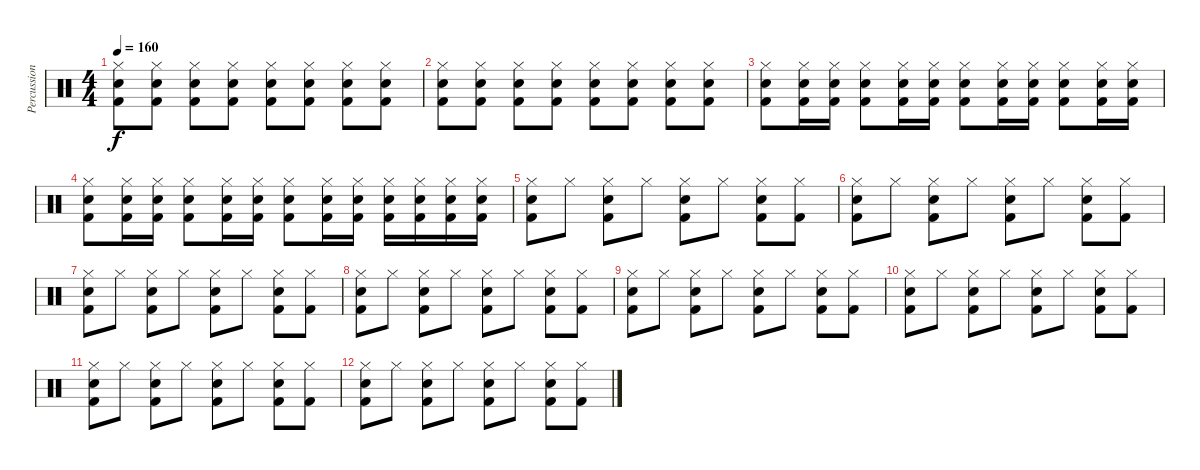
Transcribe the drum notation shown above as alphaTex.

\track ("Percussions" "Percussion") {instrument percussion}
\staff {score}
\articulation defaults
\ts (4 4)
\tempo 160
\clef neutral
\ks c
("Hi-Hat (closed)" "Electric Snare (hit)" "Kick (hit) 2").8{dy f} ("Hi-Hat (closed)" "Electric Snare (hit)" "Kick (hit) 2").8 ("Hi-Hat (closed)" "Electric Snare (hit)" "Kick (hit) 2").8 ("Hi-Hat (closed)" "Electric Snare (hit)" "Kick (hit) 2").8 ("Hi-Hat (closed)" "Electric Snare (hit)" "Kick (hit) 2").8 ("Hi-Hat (closed)" "Electric Snare (hit)" "Kick (hit) 2").8 ("Hi-Hat (closed)" "Electric Snare (hit)" "Kick (hit) 2").8 ("Hi-Hat (closed)" "Electric Snare (hit)" "Kick (hit) 2").8 |
("Hi-Hat (closed)" "Electric Snare (hit)" "Kick (hit) 2").8 ("Hi-Hat (closed)" "Electric Snare (hit)" "Kick (hit) 2").8 ("Hi-Hat (closed)" "Electric Snare (hit)" "Kick (hit) 2").8 ("Hi-Hat (closed)" "Electric Snare (hit)" "Kick (hit) 2").8 ("Hi-Hat (closed)" "Electric Snare (hit)" "Kick (hit) 2").8 ("Hi-Hat (closed)" "Electric Snare (hit)" "Kick (hit) 2").8 ("Hi-Hat (closed)" "Electric Snare (hit)" "Kick (hit) 2").8 ("Hi-Hat (closed)" "Electric Snare (hit)" "Kick (hit) 2").8 |
("Hi-Hat (closed)" "Electric Snare (hit)" "Kick (hit) 2").8 ("Hi-Hat (closed)" "Electric Snare (hit)" "Kick (hit) 2").16 ("Hi-Hat (closed)" "Electric Snare (hit)" "Kick (hit) 2").16 ("Hi-Hat (closed)" "Electric Snare (hit)" "Kick (hit) 2").8 ("Hi-Hat (closed)" "Electric Snare (hit)" "Kick (hit) 2").16 ("Hi-Hat (closed)" "Electric Snare (hit)" "Kick (hit) 2").16 ("Hi-Hat (closed)" "Electric Snare (hit)" "Kick (hit) 2").8 ("Hi-Hat (closed)" "Electric Snare (hit)" "Kick (hit) 2").16 ("Hi-Hat (closed)" "Electric Snare (hit)" "Kick (hit) 2").16 ("Hi-Hat (closed)" "Electric Snare (hit)" "Kick (hit) 2").8 ("Hi-Hat (closed)" "Electric Snare (hit)" "Kick (hit) 2").16 ("Hi-Hat (closed)" "Electric Snare (hit)" "Kick (hit) 2").16 |
("Hi-Hat (closed)" "Electric Snare (hit)" "Kick (hit) 2").8 ("Hi-Hat (closed)" "Electric Snare (hit)" "Kick (hit) 2").16 ("Hi-Hat (closed)" "Electric Snare (hit)" "Kick (hit) 2").16 ("Hi-Hat (closed)" "Electric Snare (hit)" "Kick (hit) 2").8 ("Hi-Hat (closed)" "Electric Snare (hit)" "Kick (hit) 2").16 ("Hi-Hat (closed)" "Electric Snare (hit)" "Kick (hit) 2").16 ("Hi-Hat (closed)" "Electric Snare (hit)" "Kick (hit) 2").8 ("Hi-Hat (closed)" "Electric Snare (hit)" "Kick (hit) 2").16 ("Hi-Hat (closed)" "Electric Snare (hit)" "Kick (hit) 2").16 ("Hi-Hat (closed)" "Electric Snare (hit)" "Kick (hit) 2").16 ("Hi-Hat (closed)" "Electric Snare (hit)" "Kick (hit) 2").16 ("Hi-Hat (closed)" "Electric Snare (hit)" "Kick (hit) 2").16 ("Hi-Hat (closed)" "Electric Snare (hit)" "Kick (hit) 2").16 |
("Hi-Hat (closed)" "Electric Snare (hit)" "Kick (hit) 2").8 "Hi-Hat (closed)".8 ("Hi-Hat (closed)" "Electric Snare (hit)" "Kick (hit) 2").8 "Hi-Hat (closed)".8 ("Hi-Hat (closed)" "Electric Snare (hit)" "Kick (hit) 2").8 "Hi-Hat (closed)".8 ("Hi-Hat (closed)" "Electric Snare (hit)" "Kick (hit) 2").8 ("Hi-Hat (closed)" "Kick (hit) 2").8 |
("Hi-Hat (closed)" "Electric Snare (hit)" "Kick (hit) 2").8 "Hi-Hat (closed)".8 ("Hi-Hat (closed)" "Electric Snare (hit)" "Kick (hit) 2").8 "Hi-Hat (closed)".8 ("Hi-Hat (closed)" "Electric Snare (hit)" "Kick (hit) 2").8 "Hi-Hat (closed)".8 ("Hi-Hat (closed)" "Electric Snare (hit)" "Kick (hit) 2").8 ("Hi-Hat (closed)" "Kick (hit) 2").8 |
("Hi-Hat (closed)" "Electric Snare (hit)" "Kick (hit) 2").8 "Hi-Hat (closed)".8 ("Hi-Hat (closed)" "Electric Snare (hit)" "Kick (hit) 2").8 "Hi-Hat (closed)".8 ("Hi-Hat (closed)" "Electric Snare (hit)" "Kick (hit) 2").8 "Hi-Hat (closed)".8 ("Hi-Hat (closed)" "Electric Snare (hit)" "Kick (hit) 2").8 ("Hi-Hat (closed)" "Kick (hit) 2").8 |
("Hi-Hat (closed)" "Electric Snare (hit)" "Kick (hit) 2").8 "Hi-Hat (closed)".8 ("Hi-Hat (closed)" "Electric Snare (hit)" "Kick (hit) 2").8 "Hi-Hat (closed)".8 ("Hi-Hat (closed)" "Electric Snare (hit)" "Kick (hit) 2").8 "Hi-Hat (closed)".8 ("Hi-Hat (closed)" "Electric Snare (hit)" "Kick (hit) 2").8 ("Hi-Hat (closed)" "Kick (hit) 2").8 |
("Hi-Hat (closed)" "Electric Snare (hit)" "Kick (hit) 2").8 "Hi-Hat (closed)".8 ("Hi-Hat (closed)" "Electric Snare (hit)" "Kick (hit) 2").8 "Hi-Hat (closed)".8 ("Hi-Hat (closed)" "Electric Snare (hit)" "Kick (hit) 2").8 "Hi-Hat (closed)".8 ("Hi-Hat (closed)" "Electric Snare (hit)" "Kick (hit) 2").8 ("Hi-Hat (closed)" "Kick (hit) 2").8 |
("Hi-Hat (closed)" "Electric Snare (hit)" "Kick (hit) 2").8 "Hi-Hat (closed)".8 ("Hi-Hat (closed)" "Electric Snare (hit)" "Kick (hit) 2").8 "Hi-Hat (closed)".8 ("Hi-Hat (closed)" "Electric Snare (hit)" "Kick (hit) 2").8 "Hi-Hat (closed)".8 ("Hi-Hat (closed)" "Electric Snare (hit)" "Kick (hit) 2").8 ("Hi-Hat (closed)" "Kick (hit) 2").8 |
("Hi-Hat (closed)" "Electric Snare (hit)" "Kick (hit) 2").8 "Hi-Hat (closed)".8 ("Hi-Hat (closed)" "Electric Snare (hit)" "Kick (hit) 2").8 "Hi-Hat (closed)".8 ("Hi-Hat (closed)" "Electric Snare (hit)" "Kick (hit) 2").8 "Hi-Hat (closed)".8 ("Hi-Hat (closed)" "Electric Snare (hit)" "Kick (hit) 2").8 ("Hi-Hat (closed)" "Kick (hit) 2").8 |
("Hi-Hat (closed)" "Electric Snare (hit)" "Kick (hit) 2").8 "Hi-Hat (closed)".8 ("Hi-Hat (closed)" "Electric Snare (hit)" "Kick (hit) 2").8 "Hi-Hat (closed)".8 ("Hi-Hat (closed)" "Electric Snare (hit)" "Kick (hit) 2").8 "Hi-Hat (closed)".8 ("Hi-Hat (closed)" "Electric Snare (hit)" "Kick (hit) 2").8 ("Hi-Hat (closed)" "Kick (hit) 2").8
